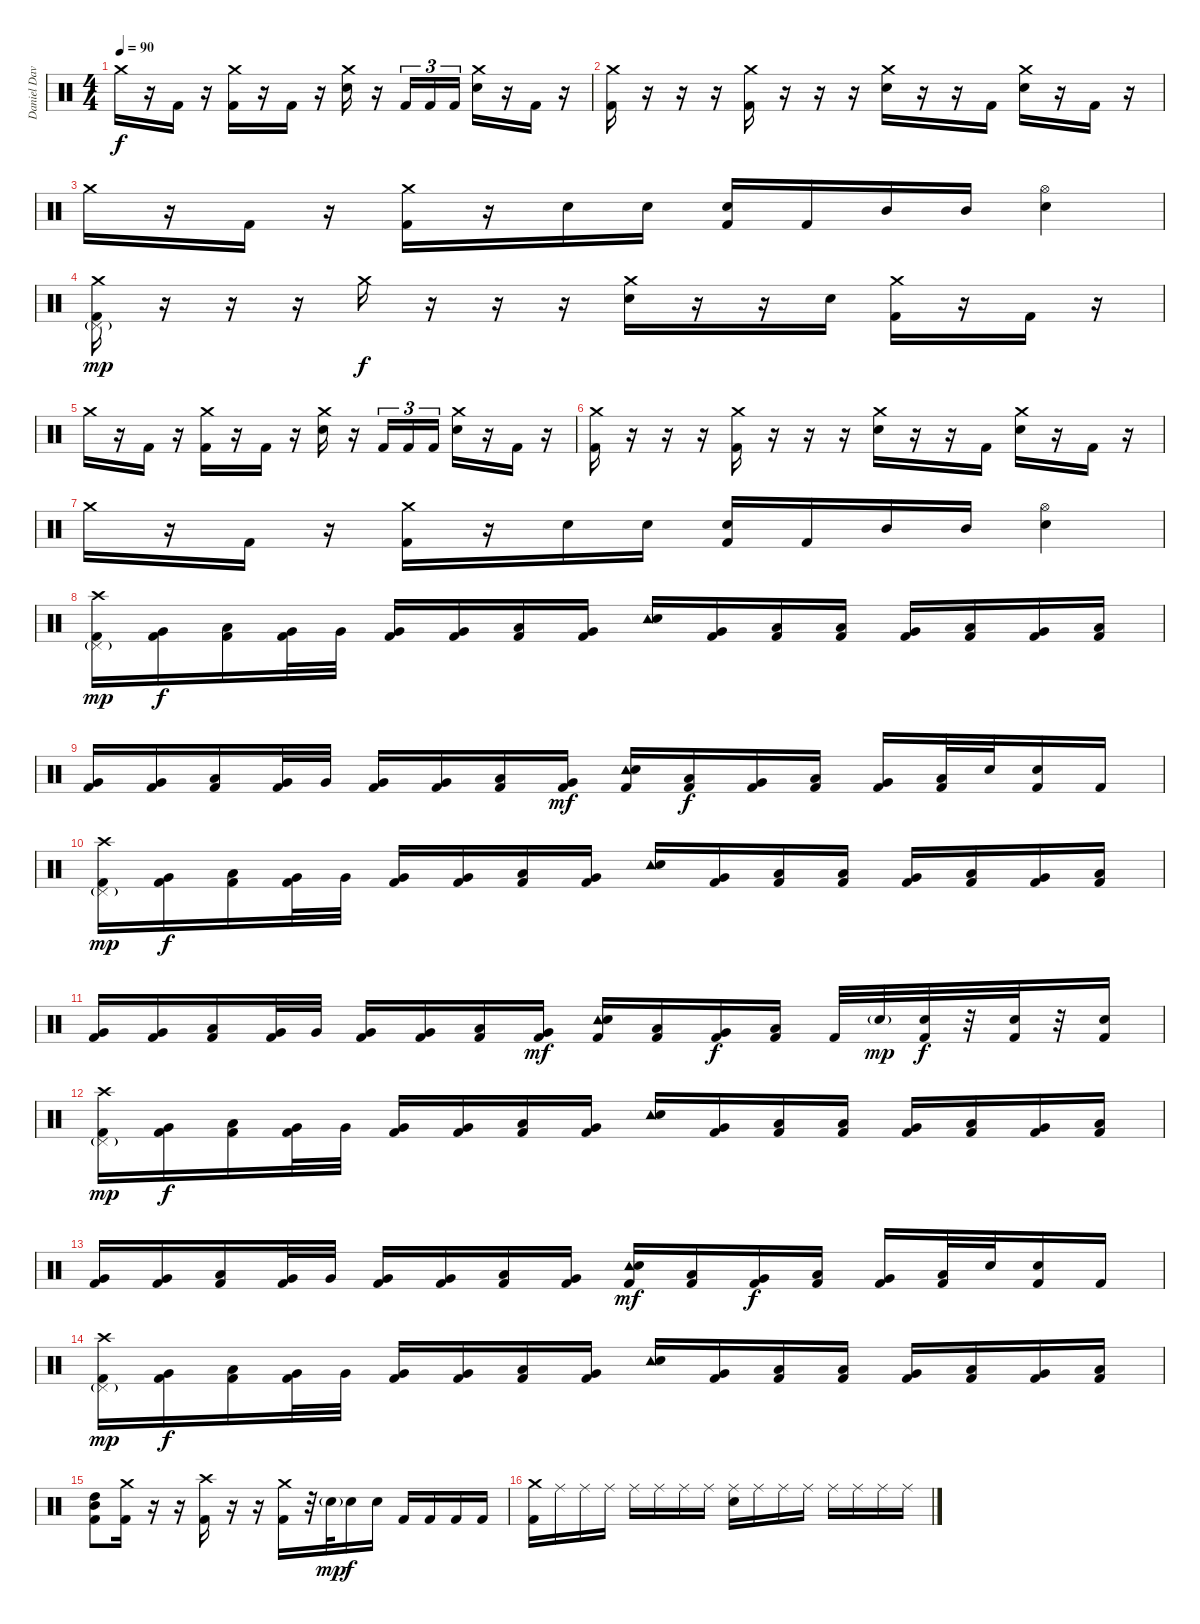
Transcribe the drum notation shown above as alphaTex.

\track ("Daniel Davison" "Daniel Dav") {instrument percussion}
\staff {score}
\articulation defaults
\ts (4 4)
\tempo 90
\clef neutral
\ks c "Crash medium (hit)".16{dy f}
r.16 "Kick (hit) 2".16 r.16 ("Crash medium (hit)" "Kick (hit) 2").16 r.16 "Kick (hit) 2".16 r.16 ("Crash medium (hit)" "Electric Snare (hit)").16 r.16 "Kick (hit) 2".16{tu (3 2)} "Kick (hit) 2".16{tu (3 2)} "Kick (hit) 2".16{tu (3 2)} ("Crash medium (hit)" "Electric Snare (hit)").16 r.16 "Kick (hit) 2".16 r.16 |
("Crash medium (hit)" "Kick (hit) 2").16 r.16 r.16 r.16 ("Crash medium (hit)" "Kick (hit) 2").16 r.16 r.16 r.16 ("Crash medium (hit)" "Electric Snare (hit)").16 r.16 r.16 "Kick (hit) 2".16 ("Crash medium (hit)" "Electric Snare (hit)").16 r.16 "Kick (hit) 2".16 r.16 |
"Crash medium (hit)".16 r.16 "Kick (hit) 2".16 r.16 ("Crash medium (hit)" "Kick (hit) 2").16 r.16 "Electric Snare (hit)".16 "Electric Snare (hit)".16 ("Electric Snare (hit)" "Kick (hit) 2").16 "Kick (hit) 2".16 "Mid Tom (hit)".16 "Mid Tom (hit)".16 ("Hi-Hat (open)" "Electric Snare (hit)").4 |
("Crash medium (hit)" "Pedal Hi-Hat (hit)"{g} "Kick (hit) 2").16{dy mp} r.16 r.16 r.16 "Crash medium (hit)".16{dy f} r.16 r.16 r.16 ("Crash medium (hit)" "Electric Snare (hit)").16 r.16 r.16 "Electric Snare (hit)".16 ("Crash medium (hit)" "Kick (hit) 2").16 r.16 "Kick (hit) 2".16 r.16 |
"Crash medium (hit)".16 r.16 "Kick (hit) 2".16 r.16 ("Crash medium (hit)" "Kick (hit) 2").16 r.16 "Kick (hit) 2".16 r.16 ("Crash medium (hit)" "Electric Snare (hit)").16 r.16 "Kick (hit) 2".16{tu (3 2)} "Kick (hit) 2".16{tu (3 2)} "Kick (hit) 2".16{tu (3 2)} ("Crash medium (hit)" "Electric Snare (hit)").16 r.16 "Kick (hit) 2".16 r.16 |
("Crash medium (hit)" "Kick (hit) 2").16 r.16 r.16 r.16 ("Crash medium (hit)" "Kick (hit) 2").16 r.16 r.16 r.16 ("Crash medium (hit)" "Electric Snare (hit)").16 r.16 r.16 "Kick (hit) 2".16 ("Crash medium (hit)" "Electric Snare (hit)").16 r.16 "Kick (hit) 2".16 r.16 |
"Crash medium (hit)".16 r.16 "Kick (hit) 2".16 r.16 ("Crash medium (hit)" "Kick (hit) 2").16 r.16 "Electric Snare (hit)".16 "Electric Snare (hit)".16 ("Electric Snare (hit)" "Kick (hit) 2").16 "Kick (hit) 2".16 "Mid Tom (hit)".16 "Mid Tom (hit)".16 ("Hi-Hat (open)" "Electric Snare (hit)").4 |
("Crash high (hit)" "Pedal Hi-Hat (hit)"{g} "Kick (hit) 2").16{dy mp} ("Very Low Tom (hit)" "Kick (hit) 2").16{dy f} ("Low Tom (hit)" "Kick (hit) 2").16 ("Very Low Tom (hit)" "Kick (hit) 2").32 "Very Low Tom (hit)".32 ("Very Low Tom (hit)" "Kick (hit) 2").16 ("Very Low Tom (hit)" "Kick (hit) 2").16 ("Low Tom (hit)" "Kick (hit) 2").16 ("Very Low Tom (hit)" "Kick (hit) 2").16 ("Tambourine (hit)" "Electric Snare (hit)").16 ("Very Low Tom (hit)" "Kick (hit) 2").16 ("Low Tom (hit)" "Kick (hit) 2").16 ("Low Tom (hit)" "Kick (hit) 2").16 ("Very Low Tom (hit)" "Kick (hit) 2").16 ("Low Tom (hit)" "Kick (hit) 2").16 ("Very Low Tom (hit)" "Kick (hit) 2").16 ("Low Tom (hit)" "Kick (hit) 2").16 |
("Very Low Tom (hit)" "Kick (hit) 2").16 ("Very Low Tom (hit)" "Kick (hit) 2").16 ("Low Tom (hit)" "Kick (hit) 2").16 ("Very Low Tom (hit)" "Kick (hit) 2").32 "Very Low Tom (hit)".32 ("Very Low Tom (hit)" "Kick (hit) 2").16 ("Very Low Tom (hit)" "Kick (hit) 2").16 ("Low Tom (hit)" "Kick (hit) 2").16 ("Very Low Tom (hit)" "Kick (hit) 2").16{dy mf} ("Tambourine (hit)" "Electric Snare (hit)" "Kick (hit) 2").16 ("Low Tom (hit)" "Kick (hit) 2").16{dy f} ("Very Low Tom (hit)" "Kick (hit) 2").16 ("Low Tom (hit)" "Kick (hit) 2").16 ("Very Low Tom (hit)" "Kick (hit) 2").16 ("Low Tom (hit)" "Kick (hit) 2").32 "Electric Snare (hit)".32 ("Electric Snare (hit)" "Kick (hit) 2").16 "Kick (hit) 2".16 |
("Crash high (hit)" "Pedal Hi-Hat (hit)"{g} "Kick (hit) 2").16{dy mp} ("Very Low Tom (hit)" "Kick (hit) 2").16{dy f} ("Low Tom (hit)" "Kick (hit) 2").16 ("Very Low Tom (hit)" "Kick (hit) 2").32 "Very Low Tom (hit)".32 ("Very Low Tom (hit)" "Kick (hit) 2").16 ("Very Low Tom (hit)" "Kick (hit) 2").16 ("Low Tom (hit)" "Kick (hit) 2").16 ("Very Low Tom (hit)" "Kick (hit) 2").16 ("Tambourine (hit)" "Electric Snare (hit)").16 ("Very Low Tom (hit)" "Kick (hit) 2").16 ("Low Tom (hit)" "Kick (hit) 2").16 ("Low Tom (hit)" "Kick (hit) 2").16 ("Very Low Tom (hit)" "Kick (hit) 2").16 ("Low Tom (hit)" "Kick (hit) 2").16 ("Very Low Tom (hit)" "Kick (hit) 2").16 ("Low Tom (hit)" "Kick (hit) 2").16 |
("Very Low Tom (hit)" "Kick (hit) 2").16 ("Very Low Tom (hit)" "Kick (hit) 2").16 ("Low Tom (hit)" "Kick (hit) 2").16 ("Very Low Tom (hit)" "Kick (hit) 2").32 "Very Low Tom (hit)".32 ("Very Low Tom (hit)" "Kick (hit) 2").16 ("Very Low Tom (hit)" "Kick (hit) 2").16 ("Low Tom (hit)" "Kick (hit) 2").16 ("Very Low Tom (hit)" "Kick (hit) 2").16{dy mf} ("Tambourine (hit)" "Electric Snare (hit)" "Kick (hit) 2").16 ("Low Tom (hit)" "Kick (hit) 2").16 ("Very Low Tom (hit)" "Kick (hit) 2").16{dy f} ("Low Tom (hit)" "Kick (hit) 2").16 "Kick (hit) 2".32 "Electric Snare (hit)"{g}.32{dy mp} ("Electric Snare (hit)" "Kick (hit) 2").32{dy f} r.32 ("Electric Snare (hit)" "Kick (hit) 2").32 r.32 ("Electric Snare (hit)" "Kick (hit) 2").16 |
("Crash high (hit)" "Pedal Hi-Hat (hit)"{g} "Kick (hit) 2").16{dy mp} ("Very Low Tom (hit)" "Kick (hit) 2").16{dy f} ("Low Tom (hit)" "Kick (hit) 2").16 ("Very Low Tom (hit)" "Kick (hit) 2").32 "Very Low Tom (hit)".32 ("Very Low Tom (hit)" "Kick (hit) 2").16 ("Very Low Tom (hit)" "Kick (hit) 2").16 ("Low Tom (hit)" "Kick (hit) 2").16 ("Very Low Tom (hit)" "Kick (hit) 2").16 ("Tambourine (hit)" "Electric Snare (hit)").16 ("Very Low Tom (hit)" "Kick (hit) 2").16 ("Low Tom (hit)" "Kick (hit) 2").16 ("Low Tom (hit)" "Kick (hit) 2").16 ("Very Low Tom (hit)" "Kick (hit) 2").16 ("Low Tom (hit)" "Kick (hit) 2").16 ("Very Low Tom (hit)" "Kick (hit) 2").16 ("Low Tom (hit)" "Kick (hit) 2").16 |
("Very Low Tom (hit)" "Kick (hit) 2").16 ("Very Low Tom (hit)" "Kick (hit) 2").16 ("Low Tom (hit)" "Kick (hit) 2").16 ("Very Low Tom (hit)" "Kick (hit) 2").32 "Very Low Tom (hit)".32 ("Very Low Tom (hit)" "Kick (hit) 2").16 ("Very Low Tom (hit)" "Kick (hit) 2").16 ("Low Tom (hit)" "Kick (hit) 2").16 ("Very Low Tom (hit)" "Kick (hit) 2").16 ("Tambourine (hit)" "Electric Snare (hit)" "Kick (hit) 2").16{dy mf} ("Low Tom (hit)" "Kick (hit) 2").16 ("Very Low Tom (hit)" "Kick (hit) 2").16{dy f} ("Low Tom (hit)" "Kick (hit) 2").16 ("Very Low Tom (hit)" "Kick (hit) 2").16 ("Low Tom (hit)" "Kick (hit) 2").32 "Electric Snare (hit)".32 ("Electric Snare (hit)" "Kick (hit) 2").16 "Kick (hit) 2".16 |
("Crash high (hit)" "Pedal Hi-Hat (hit)"{g} "Kick (hit) 2").16{dy mp} ("Very Low Tom (hit)" "Kick (hit) 2").16{dy f} ("Low Tom (hit)" "Kick (hit) 2").16 ("Very Low Tom (hit)" "Kick (hit) 2").32 "Very Low Tom (hit)".32 ("Very Low Tom (hit)" "Kick (hit) 2").16 ("Very Low Tom (hit)" "Kick (hit) 2").16 ("Low Tom (hit)" "Kick (hit) 2").16 ("Very Low Tom (hit)" "Kick (hit) 2").16 ("Tambourine (hit)" "Electric Snare (hit)").16 ("Very Low Tom (hit)" "Kick (hit) 2").16 ("Low Tom (hit)" "Kick (hit) 2").16 ("Low Tom (hit)" "Kick (hit) 2").16 ("Very Low Tom (hit)" "Kick (hit) 2").16 ("Low Tom (hit)" "Kick (hit) 2").16 ("Very Low Tom (hit)" "Kick (hit) 2").16 ("Low Tom (hit)" "Kick (hit) 2").16 |
("High Tom (hit)" "Mid Tom (hit)" "Kick (hit) 2").8 ("Crash medium (hit)" "Kick (hit) 2").16 r.16 r.16 ("Crash high (hit)" "Kick (hit) 2").16 r.16 r.16 ("Crash medium (hit)" "Kick (hit) 2").16 r.32 "Electric Snare (hit)"{g}.32{dy mp} "Electric Snare (hit)".16{dy f} "Electric Snare (hit)".16 "Kick (hit) 2".16 "Kick (hit) 2".16 "Kick (hit) 2".16 "Kick (hit) 2".16 |
("Crash medium (hit)" "Kick (hit) 2").16 "Ride (middle)".16 "Ride (middle)".16 "Ride (middle)".16 "Ride (middle)".16 "Ride (middle)".16 "Ride (middle)".16 "Ride (middle)".16 ("Ride (middle)" "Electric Snare (hit)").16 "Ride (middle)".16 "Ride (middle)".16 "Ride (middle)".16 "Ride (middle)".16 "Ride (middle)".16 "Ride (middle)".16 "Ride (middle)".16
